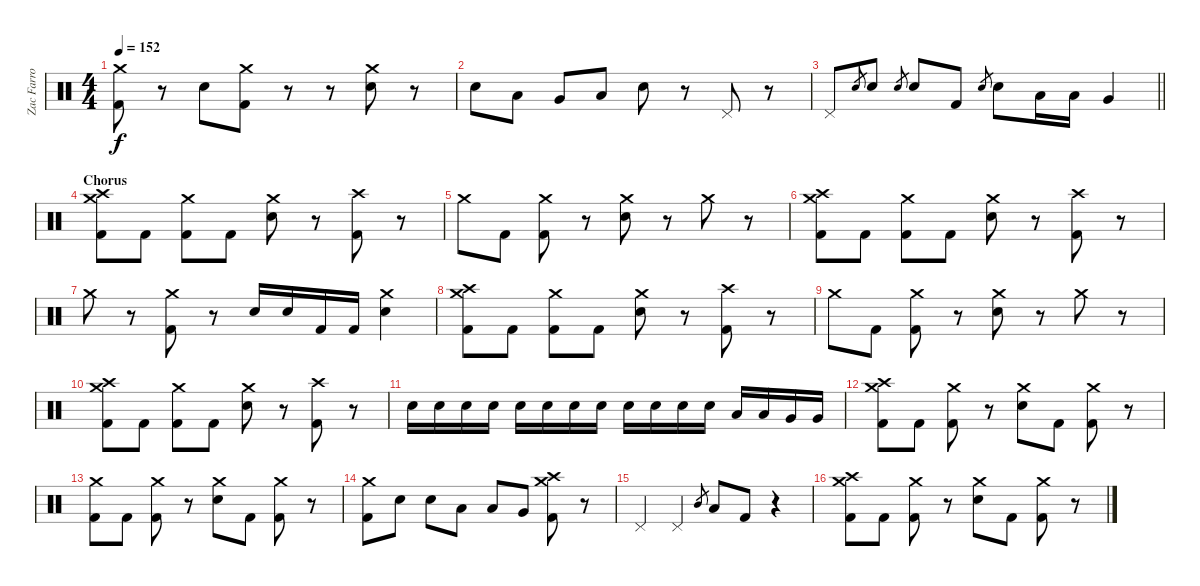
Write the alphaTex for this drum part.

\track ("Zac Farro - Drums" "Zac Farro ") {instrument percussion}
\staff {score}
\articulation defaults
\ts (4 4)
\tempo 152
\clef neutral
\ks c
("Crash medium (hit)" "Kick (hit) 2").8{dy f} r.8 "Electric Snare (hit)".8 ("Crash medium (hit)" "Kick (hit) 2").8 r.8 r.8 ("Crash medium (hit)" "Electric Snare (hit)").8 r.8 |
"Electric Snare (hit)".8 "Low Tom (hit)".8 "Very Low Tom (hit)".8 "Low Floor Tom (hit)".8 "Electric Snare (hit)".8 r.8 "Pedal Hi-Hat (hit)".8 r.8 |
\barLineRight lightlight "Pedal Hi-Hat (hit)".8 "Electric Snare (hit)".8{gr} "Electric Snare (hit)".8 "Electric Snare (hit)".8{gr} "Electric Snare (hit)".8 "Kick (hit) 2".8 "Electric Snare (hit)".8{gr} "Electric Snare (hit)".8 "Low Tom (hit)".16 "Low Tom (hit)".16 "Very Low Tom (hit)".4
|
\section ("" "Chorus")
("Crash high (hit)" "Crash medium (hit)" "Kick (hit) 2").8 "Kick (hit) 2".8 ("Crash medium (hit)" "Kick (hit) 2").8 "Kick (hit) 2".8 ("Crash medium (hit)" "Electric Snare (hit)").8 r.8 ("Crash high (hit)" "Kick (hit) 2").8 r.8 |
"Crash medium (hit)".8 "Kick (hit) 2".8 ("Crash medium (hit)" "Kick (hit) 2").8 r.8 ("Crash medium (hit)" "Electric Snare (hit)").8 r.8 "Crash medium (hit)".8 r.8 |
("Crash high (hit)" "Crash medium (hit)" "Kick (hit) 2").8 "Kick (hit) 2".8 ("Crash medium (hit)" "Kick (hit) 2").8 "Kick (hit) 2".8 ("Crash medium (hit)" "Electric Snare (hit)").8 r.8 ("Crash high (hit)" "Kick (hit) 2").8 r.8 |
"Crash medium (hit)".8 r.8 ("Crash medium (hit)" "Kick (hit) 2").8 r.8 "Electric Snare (hit)".16 "Electric Snare (hit)".16 "Kick (hit) 2".16 "Kick (hit) 2".16 ("Crash medium (hit)" "Electric Snare (hit)").4 |
("Crash high (hit)" "Crash medium (hit)" "Kick (hit) 2").8 "Kick (hit) 2".8 ("Crash medium (hit)" "Kick (hit) 2").8 "Kick (hit) 2".8 ("Crash medium (hit)" "Electric Snare (hit)").8 r.8 ("Crash high (hit)" "Kick (hit) 2").8 r.8 |
"Crash medium (hit)".8 "Kick (hit) 2".8 ("Crash medium (hit)" "Kick (hit) 2").8 r.8 ("Crash medium (hit)" "Electric Snare (hit)").8 r.8 "Crash medium (hit)".8 r.8 |
("Crash high (hit)" "Crash medium (hit)" "Kick (hit) 2").8 "Kick (hit) 2".8 ("Crash medium (hit)" "Kick (hit) 2").8 "Kick (hit) 2".8 ("Crash medium (hit)" "Electric Snare (hit)").8 r.8 ("Crash high (hit)" "Kick (hit) 2").8 r.8 |
"Electric Snare (hit)".16 "Electric Snare (hit)".16 "Electric Snare (hit)".16 "Electric Snare (hit)".16 "Electric Snare (hit)".16 "Electric Snare (hit)".16 "Electric Snare (hit)".16 "Electric Snare (hit)".16 "Electric Snare (hit)".16 "Electric Snare (hit)".16 "Electric Snare (hit)".16 "Electric Snare (hit)".16 "Low Tom (hit)".16 "Low Tom (hit)".16 "Very Low Tom (hit)".16 "Very Low Tom (hit)".16 |
("Crash high (hit)" "Crash medium (hit)" "Kick (hit) 2").8 "Kick (hit) 2".8 ("Crash medium (hit)" "Kick (hit) 2").8 r.8 ("Crash medium (hit)" "Electric Snare (hit)").8 "Kick (hit) 2".8 ("Crash medium (hit)" "Kick (hit) 2").8 r.8 |
("Crash medium (hit)" "Kick (hit) 2").8 "Kick (hit) 2".8 ("Crash medium (hit)" "Kick (hit) 2").8 r.8 ("Crash medium (hit)" "Electric Snare (hit)").8 "Kick (hit) 2".8 ("Crash medium (hit)" "Kick (hit) 2").8 r.8 |
("Crash medium (hit)" "Kick (hit) 2").8 "Electric Snare (hit)".8 "Electric Snare (hit)".8 "Low Tom (hit)".8 "Low Tom (hit)".8 "Very Low Tom (hit)".8 ("Crash high (hit)" "Crash medium (hit)" "Kick (hit) 2").8 r.8 |
"Pedal Hi-Hat (hit)".4 "Pedal Hi-Hat (hit)".4 "Mid Tom (hit)".8{gr} "Low Tom (hit)".8 "Kick (hit) 2".8 r.4 |
("Crash high (hit)" "Crash medium (hit)" "Kick (hit) 2").8 "Kick (hit) 2".8 ("Crash medium (hit)" "Kick (hit) 2").8 r.8 ("Crash medium (hit)" "Electric Snare (hit)").8 "Kick (hit) 2".8 ("Crash medium (hit)" "Kick (hit) 2").8 r.8
